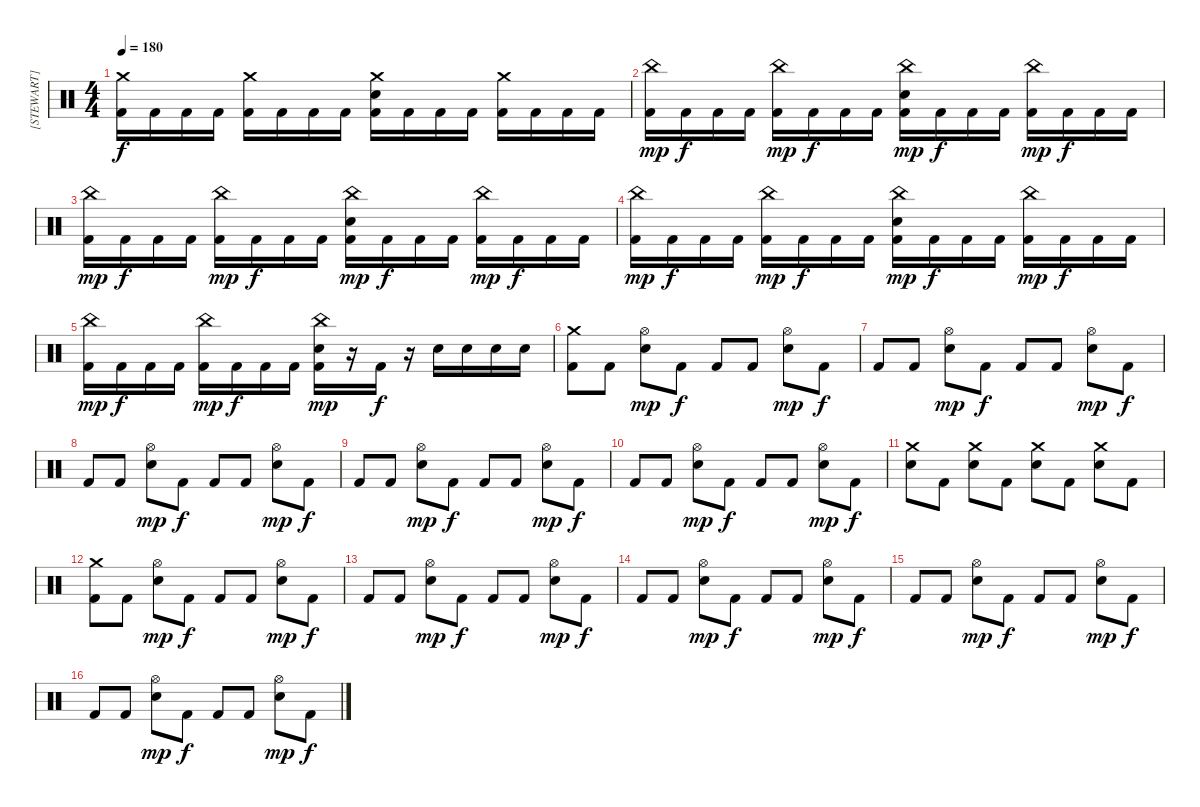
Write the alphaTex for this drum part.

\track ("[STEWART]" "[STEWART]") {instrument percussion}
\staff {score}
\articulation defaults
\ts (4 4)
\tempo 180
\clef neutral
\ks c
("Crash medium (hit)" "Kick (hit) 2").16{dy f} "Kick (hit) 2".16 "Kick (hit) 2".16 "Kick (hit) 2".16 ("Crash medium (hit)" "Kick (hit) 2").16 "Kick (hit) 2".16 "Kick (hit) 2".16 "Kick (hit) 2".16 ("Crash medium (hit)" "Snare (hit) 2" "Kick (hit) 2").16 "Kick (hit) 2".16 "Kick (hit) 2".16 "Kick (hit) 2".16 ("Crash medium (hit)" "Kick (hit) 2").16 "Kick (hit) 2".16 "Kick (hit) 2".16 "Kick (hit) 2".16 |
("China (hit)" "Kick (hit) 2").16{dy mp} "Kick (hit) 2".16{dy f} "Kick (hit) 2".16 "Kick (hit) 2".16 ("China (hit)" "Kick (hit) 2").16{dy mp} "Kick (hit) 2".16{dy f} "Kick (hit) 2".16 "Kick (hit) 2".16 ("China (hit)" "Snare (hit) 2" "Kick (hit) 2").16{dy mp} "Kick (hit) 2".16{dy f} "Kick (hit) 2".16 "Kick (hit) 2".16 ("China (hit)" "Kick (hit) 2").16{dy mp} "Kick (hit) 2".16{dy f} "Kick (hit) 2".16 "Kick (hit) 2".16 |
("China (hit)" "Kick (hit) 2").16{dy mp} "Kick (hit) 2".16{dy f} "Kick (hit) 2".16 "Kick (hit) 2".16 ("China (hit)" "Kick (hit) 2").16{dy mp} "Kick (hit) 2".16{dy f} "Kick (hit) 2".16 "Kick (hit) 2".16 ("China (hit)" "Snare (hit) 2" "Kick (hit) 2").16{dy mp} "Kick (hit) 2".16{dy f} "Kick (hit) 2".16 "Kick (hit) 2".16 ("China (hit)" "Kick (hit) 2").16{dy mp} "Kick (hit) 2".16{dy f} "Kick (hit) 2".16 "Kick (hit) 2".16 |
("China (hit)" "Kick (hit) 2").16{dy mp} "Kick (hit) 2".16{dy f} "Kick (hit) 2".16 "Kick (hit) 2".16 ("China (hit)" "Kick (hit) 2").16{dy mp} "Kick (hit) 2".16{dy f} "Kick (hit) 2".16 "Kick (hit) 2".16 ("China (hit)" "Snare (hit) 2" "Kick (hit) 2").16{dy mp} "Kick (hit) 2".16{dy f} "Kick (hit) 2".16 "Kick (hit) 2".16 ("China (hit)" "Kick (hit) 2").16{dy mp} "Kick (hit) 2".16{dy f} "Kick (hit) 2".16 "Kick (hit) 2".16 |
("China (hit)" "Kick (hit) 2").16{dy mp} "Kick (hit) 2".16{dy f} "Kick (hit) 2".16 "Kick (hit) 2".16 ("China (hit)" "Kick (hit) 2").16{dy mp} "Kick (hit) 2".16{dy f} "Kick (hit) 2".16 "Kick (hit) 2".16 ("China (hit)" "Snare (hit) 2" "Kick (hit) 2").16{dy mp} r.16 "Kick (hit) 2".16{dy f} r.16 "Snare (hit) 2".16 "Snare (hit) 2".16 "Snare (hit) 2".16 "Snare (hit) 2".16 |
("Crash medium (hit)" "Kick (hit) 2").8 "Kick (hit) 2".8 ("Hi-Hat (open)" "Snare (hit) 2").8{dy mp} "Kick (hit) 2".8{dy f} "Kick (hit) 2".8 "Kick (hit) 2".8 ("Hi-Hat (open)" "Snare (hit) 2").8{dy mp} "Kick (hit) 2".8{dy f} |
"Kick (hit) 2".8 "Kick (hit) 2".8 ("Hi-Hat (open)" "Snare (hit) 2").8{dy mp} "Kick (hit) 2".8{dy f} "Kick (hit) 2".8 "Kick (hit) 2".8 ("Hi-Hat (open)" "Snare (hit) 2").8{dy mp} "Kick (hit) 2".8{dy f} |
"Kick (hit) 2".8 "Kick (hit) 2".8 ("Hi-Hat (open)" "Snare (hit) 2").8{dy mp} "Kick (hit) 2".8{dy f} "Kick (hit) 2".8 "Kick (hit) 2".8 ("Hi-Hat (open)" "Snare (hit) 2").8{dy mp} "Kick (hit) 2".8{dy f} |
"Kick (hit) 2".8 "Kick (hit) 2".8 ("Hi-Hat (open)" "Snare (hit) 2").8{dy mp} "Kick (hit) 2".8{dy f} "Kick (hit) 2".8 "Kick (hit) 2".8 ("Hi-Hat (open)" "Snare (hit) 2").8{dy mp} "Kick (hit) 2".8{dy f} |
"Kick (hit) 2".8 "Kick (hit) 2".8 ("Hi-Hat (open)" "Snare (hit) 2").8{dy mp} "Kick (hit) 2".8{dy f} "Kick (hit) 2".8 "Kick (hit) 2".8 ("Hi-Hat (open)" "Snare (hit) 2").8{dy mp} "Kick (hit) 2".8{dy f} |
("Crash medium (hit)" "Snare (hit) 2").8 "Kick (hit) 2".8 ("Crash medium (hit)" "Snare (hit) 2").8 "Kick (hit) 2".8 ("Crash medium (hit)" "Snare (hit) 2").8 "Kick (hit) 2".8 ("Crash medium (hit)" "Snare (hit) 2").8 "Kick (hit) 2".8 |
("Crash medium (hit)" "Kick (hit) 2").8 "Kick (hit) 2".8 ("Hi-Hat (open)" "Snare (hit) 2").8{dy mp} "Kick (hit) 2".8{dy f} "Kick (hit) 2".8 "Kick (hit) 2".8 ("Hi-Hat (open)" "Snare (hit) 2").8{dy mp} "Kick (hit) 2".8{dy f} |
"Kick (hit) 2".8 "Kick (hit) 2".8 ("Hi-Hat (open)" "Snare (hit) 2").8{dy mp} "Kick (hit) 2".8{dy f} "Kick (hit) 2".8 "Kick (hit) 2".8 ("Hi-Hat (open)" "Snare (hit) 2").8{dy mp} "Kick (hit) 2".8{dy f} |
"Kick (hit) 2".8 "Kick (hit) 2".8 ("Hi-Hat (open)" "Snare (hit) 2").8{dy mp} "Kick (hit) 2".8{dy f} "Kick (hit) 2".8 "Kick (hit) 2".8 ("Hi-Hat (open)" "Snare (hit) 2").8{dy mp} "Kick (hit) 2".8{dy f} |
"Kick (hit) 2".8 "Kick (hit) 2".8 ("Hi-Hat (open)" "Snare (hit) 2").8{dy mp} "Kick (hit) 2".8{dy f} "Kick (hit) 2".8 "Kick (hit) 2".8 ("Hi-Hat (open)" "Snare (hit) 2").8{dy mp} "Kick (hit) 2".8{dy f} |
"Kick (hit) 2".8 "Kick (hit) 2".8 ("Hi-Hat (open)" "Snare (hit) 2").8{dy mp} "Kick (hit) 2".8{dy f} "Kick (hit) 2".8 "Kick (hit) 2".8 ("Hi-Hat (open)" "Snare (hit) 2").8{dy mp} "Kick (hit) 2".8{dy f}
